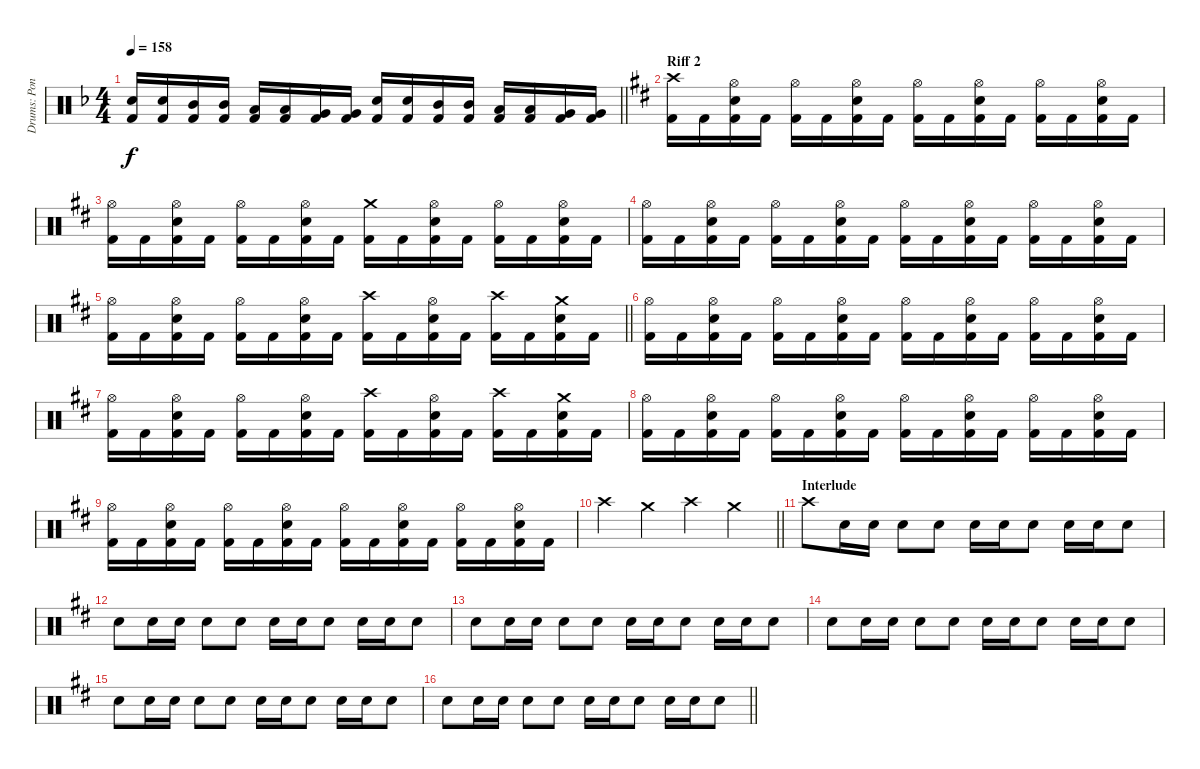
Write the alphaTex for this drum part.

\track ("Drums: Pontus Jansson" "Drums: Pon") {instrument percussion}
\staff {score}
\articulation defaults
\ts (4 4)
\tempo 158
\clef neutral
\barLineRight lightlight
\ks dminor
("Electric Snare (hit)" "Kick (hit) 2").16{dy f} ("Electric Snare (hit)" "Kick (hit) 2").16 ("Mid Tom (hit)" "Kick (hit) 2").16 ("Mid Tom (hit)" "Kick (hit) 2").16 ("Low Tom (hit)" "Kick (hit) 2").16 ("Low Tom (hit)" "Kick (hit) 2").16 ("Very Low Tom (hit)" "Kick (hit) 2").16 ("Very Low Tom (hit)" "Kick (hit) 2").16 ("Electric Snare (hit)" "Kick (hit) 2").16 ("Electric Snare (hit)" "Kick (hit) 2").16 ("Mid Tom (hit)" "Kick (hit) 2").16 ("Mid Tom (hit)" "Kick (hit) 2").16 ("Low Tom (hit)" "Kick (hit) 2").16 ("Low Tom (hit)" "Kick (hit) 2").16 ("Very Low Tom (hit)" "Kick (hit) 2").16 ("Very Low Tom (hit)" "Kick (hit) 2").16 |
\section ("" "Riff 2")
\ks bminor
("Crash high (hit)" "Kick (hit) 2").16 "Kick (hit) 2".16 ("Hi-Hat (open)" "Electric Snare (hit)" "Kick (hit) 2").16 "Kick (hit) 2".16 ("Hi-Hat (open)" "Kick (hit) 2").16 "Kick (hit) 2".16 ("Hi-Hat (open)" "Electric Snare (hit)" "Kick (hit) 2").16 "Kick (hit) 2".16 ("Hi-Hat (open)" "Kick (hit) 2").16 "Kick (hit) 2".16 ("Hi-Hat (open)" "Electric Snare (hit)" "Kick (hit) 2").16 "Kick (hit) 2".16 ("Hi-Hat (open)" "Kick (hit) 2").16 "Kick (hit) 2".16 ("Hi-Hat (open)" "Electric Snare (hit)" "Kick (hit) 2").16 "Kick (hit) 2".16 |
("Hi-Hat (open)" "Kick (hit) 2").16 "Kick (hit) 2".16 ("Hi-Hat (open)" "Electric Snare (hit)" "Kick (hit) 2").16 "Kick (hit) 2".16 ("Hi-Hat (open)" "Kick (hit) 2").16 "Kick (hit) 2".16 ("Hi-Hat (open)" "Electric Snare (hit)" "Kick (hit) 2").16 "Kick (hit) 2".16 ("Crash medium (hit)" "Kick (hit) 2").16 "Kick (hit) 2".16 ("Hi-Hat (open)" "Electric Snare (hit)" "Kick (hit) 2").16 "Kick (hit) 2".16 ("Hi-Hat (open)" "Kick (hit) 2").16 "Kick (hit) 2".16 ("Hi-Hat (open)" "Electric Snare (hit)" "Kick (hit) 2").16 "Kick (hit) 2".16 |
("Hi-Hat (open)" "Kick (hit) 2").16 "Kick (hit) 2".16 ("Hi-Hat (open)" "Electric Snare (hit)" "Kick (hit) 2").16 "Kick (hit) 2".16 ("Hi-Hat (open)" "Kick (hit) 2").16 "Kick (hit) 2".16 ("Hi-Hat (open)" "Electric Snare (hit)" "Kick (hit) 2").16 "Kick (hit) 2".16 ("Hi-Hat (open)" "Kick (hit) 2").16 "Kick (hit) 2".16 ("Hi-Hat (open)" "Electric Snare (hit)" "Kick (hit) 2").16 "Kick (hit) 2".16 ("Hi-Hat (open)" "Kick (hit) 2").16 "Kick (hit) 2".16 ("Hi-Hat (open)" "Electric Snare (hit)" "Kick (hit) 2").16 "Kick (hit) 2".16 |
\barLineRight lightlight
("Hi-Hat (open)" "Kick (hit) 2").16 "Kick (hit) 2".16 ("Hi-Hat (open)" "Electric Snare (hit)" "Kick (hit) 2").16 "Kick (hit) 2".16 ("Hi-Hat (open)" "Kick (hit) 2").16 "Kick (hit) 2".16 ("Hi-Hat (open)" "Electric Snare (hit)" "Kick (hit) 2").16 "Kick (hit) 2".16 ("Crash high (hit)" "Kick (hit) 2").16 "Kick (hit) 2".16 ("Hi-Hat (open)" "Electric Snare (hit)" "Kick (hit) 2").16 "Kick (hit) 2".16 ("Crash high (hit)" "Kick (hit) 2").16 "Kick (hit) 2".16 ("Crash medium (hit)" "Electric Snare (hit)" "Kick (hit) 2").16 "Kick (hit) 2".16 |
("Hi-Hat (open)" "Kick (hit) 2").16 "Kick (hit) 2".16 ("Hi-Hat (open)" "Electric Snare (hit)" "Kick (hit) 2").16 "Kick (hit) 2".16 ("Hi-Hat (open)" "Kick (hit) 2").16 "Kick (hit) 2".16 ("Hi-Hat (open)" "Electric Snare (hit)" "Kick (hit) 2").16 "Kick (hit) 2".16 ("Hi-Hat (open)" "Kick (hit) 2").16 "Kick (hit) 2".16 ("Hi-Hat (open)" "Electric Snare (hit)" "Kick (hit) 2").16 "Kick (hit) 2".16 ("Hi-Hat (open)" "Kick (hit) 2").16 "Kick (hit) 2".16 ("Hi-Hat (open)" "Electric Snare (hit)" "Kick (hit) 2").16 "Kick (hit) 2".16 |
("Hi-Hat (open)" "Kick (hit) 2").16 "Kick (hit) 2".16 ("Hi-Hat (open)" "Electric Snare (hit)" "Kick (hit) 2").16 "Kick (hit) 2".16 ("Hi-Hat (open)" "Kick (hit) 2").16 "Kick (hit) 2".16 ("Hi-Hat (open)" "Electric Snare (hit)" "Kick (hit) 2").16 "Kick (hit) 2".16 ("Crash high (hit)" "Kick (hit) 2").16 "Kick (hit) 2".16 ("Hi-Hat (open)" "Electric Snare (hit)" "Kick (hit) 2").16 "Kick (hit) 2".16 ("Crash high (hit)" "Kick (hit) 2").16 "Kick (hit) 2".16 ("Crash medium (hit)" "Electric Snare (hit)" "Kick (hit) 2").16 "Kick (hit) 2".16 |
("Hi-Hat (open)" "Kick (hit) 2").16 "Kick (hit) 2".16 ("Hi-Hat (open)" "Electric Snare (hit)" "Kick (hit) 2").16 "Kick (hit) 2".16 ("Hi-Hat (open)" "Kick (hit) 2").16 "Kick (hit) 2".16 ("Hi-Hat (open)" "Electric Snare (hit)" "Kick (hit) 2").16 "Kick (hit) 2".16 ("Hi-Hat (open)" "Kick (hit) 2").16 "Kick (hit) 2".16 ("Hi-Hat (open)" "Electric Snare (hit)" "Kick (hit) 2").16 "Kick (hit) 2".16 ("Hi-Hat (open)" "Kick (hit) 2").16 "Kick (hit) 2".16 ("Hi-Hat (open)" "Electric Snare (hit)" "Kick (hit) 2").16 "Kick (hit) 2".16 |
("Hi-Hat (open)" "Kick (hit) 2").16 "Kick (hit) 2".16 ("Hi-Hat (open)" "Electric Snare (hit)" "Kick (hit) 2").16 "Kick (hit) 2".16 ("Hi-Hat (open)" "Kick (hit) 2").16 "Kick (hit) 2".16 ("Hi-Hat (open)" "Electric Snare (hit)" "Kick (hit) 2").16 "Kick (hit) 2".16 ("Hi-Hat (open)" "Kick (hit) 2").16 "Kick (hit) 2".16 ("Hi-Hat (open)" "Electric Snare (hit)" "Kick (hit) 2").16 "Kick (hit) 2".16 ("Hi-Hat (open)" "Kick (hit) 2").16 "Kick (hit) 2".16 ("Hi-Hat (open)" "Electric Snare (hit)" "Kick (hit) 2").16 "Kick (hit) 2".16 |
\barLineRight lightlight "Crash high (hit)".4 "Crash medium (hit)".4 "Crash high (hit)".4 "Crash medium (hit)".4
|
\section ("" "Interlude")
"Crash high (hit)".8 "Electric Snare (hit)".16 "Electric Snare (hit)".16 "Electric Snare (hit)".8 "Electric Snare (hit)".8 "Electric Snare (hit)".16 "Electric Snare (hit)".16 "Electric Snare (hit)".8 "Electric Snare (hit)".16 "Electric Snare (hit)".16 "Electric Snare (hit)".8 |
"Electric Snare (hit)".8 "Electric Snare (hit)".16 "Electric Snare (hit)".16 "Electric Snare (hit)".8 "Electric Snare (hit)".8 "Electric Snare (hit)".16 "Electric Snare (hit)".16 "Electric Snare (hit)".8 "Electric Snare (hit)".16 "Electric Snare (hit)".16 "Electric Snare (hit)".8 |
"Electric Snare (hit)".8 "Electric Snare (hit)".16 "Electric Snare (hit)".16 "Electric Snare (hit)".8 "Electric Snare (hit)".8 "Electric Snare (hit)".16 "Electric Snare (hit)".16 "Electric Snare (hit)".8 "Electric Snare (hit)".16 "Electric Snare (hit)".16 "Electric Snare (hit)".8 |
"Electric Snare (hit)".8 "Electric Snare (hit)".16 "Electric Snare (hit)".16 "Electric Snare (hit)".8 "Electric Snare (hit)".8 "Electric Snare (hit)".16 "Electric Snare (hit)".16 "Electric Snare (hit)".8 "Electric Snare (hit)".16 "Electric Snare (hit)".16 "Electric Snare (hit)".8 |
"Electric Snare (hit)".8 "Electric Snare (hit)".16 "Electric Snare (hit)".16 "Electric Snare (hit)".8 "Electric Snare (hit)".8 "Electric Snare (hit)".16 "Electric Snare (hit)".16 "Electric Snare (hit)".8 "Electric Snare (hit)".16 "Electric Snare (hit)".16 "Electric Snare (hit)".8 |
\barLineRight lightlight "Electric Snare (hit)".8 "Electric Snare (hit)".16 "Electric Snare (hit)".16 "Electric Snare (hit)".8 "Electric Snare (hit)".8 "Electric Snare (hit)".16 "Electric Snare (hit)".16 "Electric Snare (hit)".8 "Electric Snare (hit)".16 "Electric Snare (hit)".16 "Electric Snare (hit)".8
